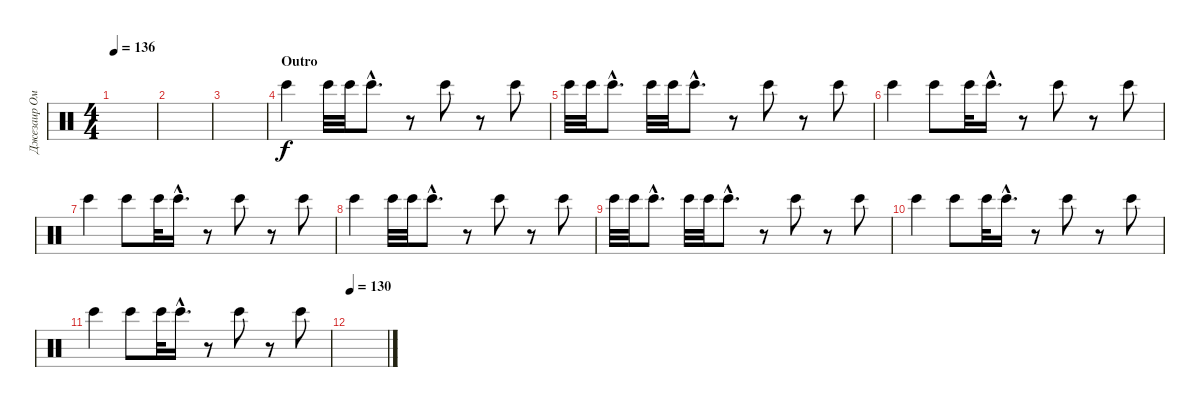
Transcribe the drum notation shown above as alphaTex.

\track ("Джезаир Омер - Бонго" "Джезаир Ом") {instrument percussion}
\staff {score}
\articulation defaults
\ts (4 4)
\tempo 136
\clef neutral
\ks c
|
|
|
\section ("" "Outro")
"Bongo High (hit)".4 "Bongo High (hit)".32 "Bongo High (hit)".32 "Bongo High (hit)"{hac}.8{d} r.8 "Bongo High (hit)".8 r.8 "Bongo High (hit)".8 |
"Bongo High (hit)".32 "Bongo High (hit)".32 "Bongo High (hit)"{hac}.8{d} "Bongo High (hit)".32 "Bongo High (hit)".32 "Bongo High (hit)"{hac}.8{d} r.8 "Bongo High (hit)".8 r.8 "Bongo High (hit)".8 |
"Bongo High (hit)".4 "Bongo High (hit)".8 "Bongo High (hit)".32 "Bongo High (hit)"{hac}.16{d} r.8 "Bongo High (hit)".8 r.8 "Bongo High (hit)".8 |
"Bongo High (hit)".4 "Bongo High (hit)".8 "Bongo High (hit)".32 "Bongo High (hit)"{hac}.16{d} r.8 "Bongo High (hit)".8 r.8 "Bongo High (hit)".8 |
"Bongo High (hit)".4 "Bongo High (hit)".32 "Bongo High (hit)".32 "Bongo High (hit)"{hac}.8{d} r.8 "Bongo High (hit)".8 r.8 "Bongo High (hit)".8 |
"Bongo High (hit)".32 "Bongo High (hit)".32 "Bongo High (hit)"{hac}.8{d} "Bongo High (hit)".32 "Bongo High (hit)".32 "Bongo High (hit)"{hac}.8{d} r.8 "Bongo High (hit)".8 r.8 "Bongo High (hit)".8 |
"Bongo High (hit)".4 "Bongo High (hit)".8 "Bongo High (hit)".32 "Bongo High (hit)"{hac}.16{d} r.8 "Bongo High (hit)".8 r.8 "Bongo High (hit)".8 |
"Bongo High (hit)".4 "Bongo High (hit)".8 "Bongo High (hit)".32 "Bongo High (hit)"{hac}.16{d} r.8 "Bongo High (hit)".8 r.8 "Bongo High (hit)".8 |
\tempo 130
